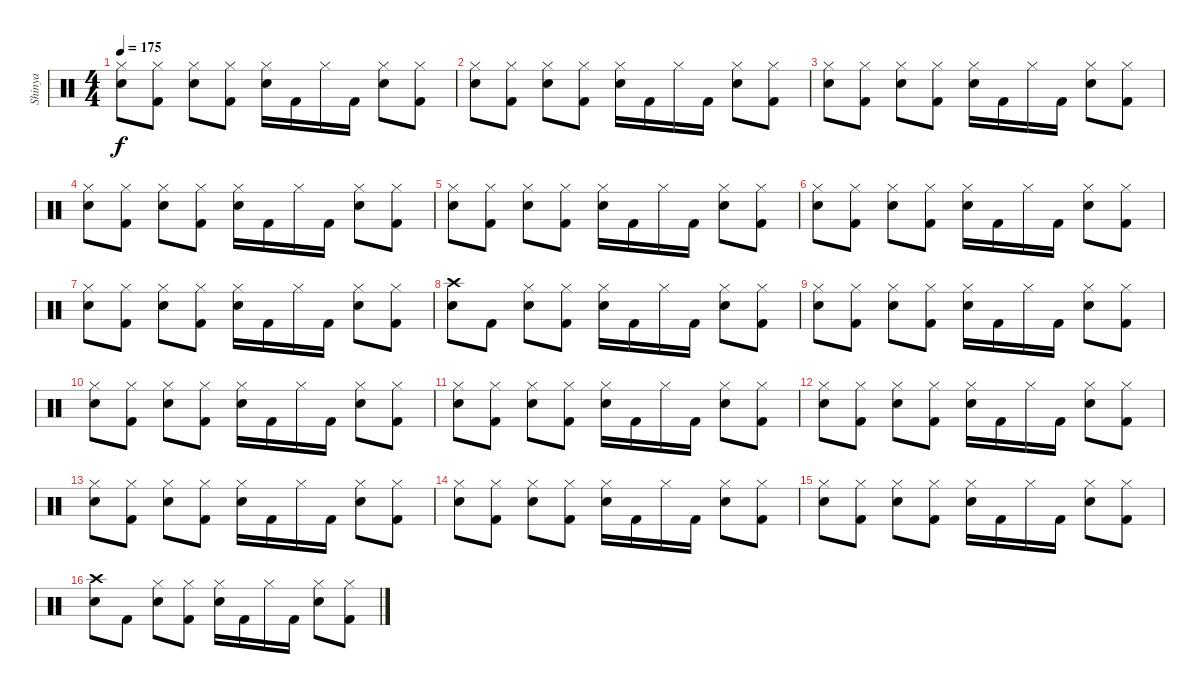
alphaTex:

\track ("Shinya" "Shinya") {instrument percussion}
\staff {score}
\articulation defaults
\ts (4 4)
\tempo 175
\clef neutral
\ks c
("Hi-Hat (closed)" "Snare (hit) 2").8{dy f} ("Hi-Hat (closed)" "Kick (hit) 2").8 ("Hi-Hat (closed)" "Snare (hit) 2").8 ("Hi-Hat (closed)" "Kick (hit) 2").8 ("Hi-Hat (closed)" "Snare (hit) 2").16 "Kick (hit) 2".16 "Hi-Hat (closed)".16 "Kick (hit) 2".16 ("Hi-Hat (closed)" "Snare (hit) 2").8 ("Hi-Hat (closed)" "Kick (hit) 2").8 |
("Hi-Hat (closed)" "Snare (hit) 2").8 ("Hi-Hat (closed)" "Kick (hit) 2").8 ("Hi-Hat (closed)" "Snare (hit) 2").8 ("Hi-Hat (closed)" "Kick (hit) 2").8 ("Hi-Hat (closed)" "Snare (hit) 2").16 "Kick (hit) 2".16 "Hi-Hat (closed)".16 "Kick (hit) 2".16 ("Hi-Hat (closed)" "Snare (hit) 2").8 ("Hi-Hat (closed)" "Kick (hit) 2").8 |
("Hi-Hat (closed)" "Snare (hit) 2").8 ("Hi-Hat (closed)" "Kick (hit) 2").8 ("Hi-Hat (closed)" "Snare (hit) 2").8 ("Hi-Hat (closed)" "Kick (hit) 2").8 ("Hi-Hat (closed)" "Snare (hit) 2").16 "Kick (hit) 2".16 "Hi-Hat (closed)".16 "Kick (hit) 2".16 ("Hi-Hat (closed)" "Snare (hit) 2").8 ("Hi-Hat (closed)" "Kick (hit) 2").8 |
("Hi-Hat (closed)" "Snare (hit) 2").8 ("Hi-Hat (closed)" "Kick (hit) 2").8 ("Hi-Hat (closed)" "Snare (hit) 2").8 ("Hi-Hat (closed)" "Kick (hit) 2").8 ("Hi-Hat (closed)" "Snare (hit) 2").16 "Kick (hit) 2".16 "Hi-Hat (closed)".16 "Kick (hit) 2".16 ("Hi-Hat (closed)" "Snare (hit) 2").8 ("Hi-Hat (closed)" "Kick (hit) 2").8 |
("Hi-Hat (closed)" "Snare (hit) 2").8 ("Hi-Hat (closed)" "Kick (hit) 2").8 ("Hi-Hat (closed)" "Snare (hit) 2").8 ("Hi-Hat (closed)" "Kick (hit) 2").8 ("Hi-Hat (closed)" "Snare (hit) 2").16 "Kick (hit) 2".16 "Hi-Hat (closed)".16 "Kick (hit) 2".16 ("Hi-Hat (closed)" "Snare (hit) 2").8 ("Hi-Hat (closed)" "Kick (hit) 2").8 |
("Hi-Hat (closed)" "Snare (hit) 2").8 ("Hi-Hat (closed)" "Kick (hit) 2").8 ("Hi-Hat (closed)" "Snare (hit) 2").8 ("Hi-Hat (closed)" "Kick (hit) 2").8 ("Hi-Hat (closed)" "Snare (hit) 2").16 "Kick (hit) 2".16 "Hi-Hat (closed)".16 "Kick (hit) 2".16 ("Hi-Hat (closed)" "Snare (hit) 2").8 ("Hi-Hat (closed)" "Kick (hit) 2").8 |
("Hi-Hat (closed)" "Snare (hit) 2").8 ("Hi-Hat (closed)" "Kick (hit) 2").8 ("Hi-Hat (closed)" "Snare (hit) 2").8 ("Hi-Hat (closed)" "Kick (hit) 2").8 ("Hi-Hat (closed)" "Snare (hit) 2").16 "Kick (hit) 2".16 "Hi-Hat (closed)".16 "Kick (hit) 2".16 ("Hi-Hat (closed)" "Snare (hit) 2").8 ("Hi-Hat (closed)" "Kick (hit) 2").8 |
("Crash high (hit)" "Snare (hit) 2").8 "Kick (hit) 2".8 ("Hi-Hat (closed)" "Snare (hit) 2").8 ("Hi-Hat (closed)" "Kick (hit) 2").8 ("Hi-Hat (closed)" "Snare (hit) 2").16 "Kick (hit) 2".16 "Hi-Hat (closed)".16 "Kick (hit) 2".16 ("Hi-Hat (closed)" "Snare (hit) 2").8 ("Hi-Hat (closed)" "Kick (hit) 2").8 |
("Hi-Hat (closed)" "Snare (hit) 2").8 ("Hi-Hat (closed)" "Kick (hit) 2").8 ("Hi-Hat (closed)" "Snare (hit) 2").8 ("Hi-Hat (closed)" "Kick (hit) 2").8 ("Hi-Hat (closed)" "Snare (hit) 2").16 "Kick (hit) 2".16 "Hi-Hat (closed)".16 "Kick (hit) 2".16 ("Hi-Hat (closed)" "Snare (hit) 2").8 ("Hi-Hat (closed)" "Kick (hit) 2").8 |
("Hi-Hat (closed)" "Snare (hit) 2").8 ("Hi-Hat (closed)" "Kick (hit) 2").8 ("Hi-Hat (closed)" "Snare (hit) 2").8 ("Hi-Hat (closed)" "Kick (hit) 2").8 ("Hi-Hat (closed)" "Snare (hit) 2").16 "Kick (hit) 2".16 "Hi-Hat (closed)".16 "Kick (hit) 2".16 ("Hi-Hat (closed)" "Snare (hit) 2").8 ("Hi-Hat (closed)" "Kick (hit) 2").8 |
("Hi-Hat (closed)" "Snare (hit) 2").8 ("Hi-Hat (closed)" "Kick (hit) 2").8 ("Hi-Hat (closed)" "Snare (hit) 2").8 ("Hi-Hat (closed)" "Kick (hit) 2").8 ("Hi-Hat (closed)" "Snare (hit) 2").16 "Kick (hit) 2".16 "Hi-Hat (closed)".16 "Kick (hit) 2".16 ("Hi-Hat (closed)" "Snare (hit) 2").8 ("Hi-Hat (closed)" "Kick (hit) 2").8 |
("Hi-Hat (closed)" "Snare (hit) 2").8 ("Hi-Hat (closed)" "Kick (hit) 2").8 ("Hi-Hat (closed)" "Snare (hit) 2").8 ("Hi-Hat (closed)" "Kick (hit) 2").8 ("Hi-Hat (closed)" "Snare (hit) 2").16 "Kick (hit) 2".16 "Hi-Hat (closed)".16 "Kick (hit) 2".16 ("Hi-Hat (closed)" "Snare (hit) 2").8 ("Hi-Hat (closed)" "Kick (hit) 2").8 |
("Hi-Hat (closed)" "Snare (hit) 2").8 ("Hi-Hat (closed)" "Kick (hit) 2").8 ("Hi-Hat (closed)" "Snare (hit) 2").8 ("Hi-Hat (closed)" "Kick (hit) 2").8 ("Hi-Hat (closed)" "Snare (hit) 2").16 "Kick (hit) 2".16 "Hi-Hat (closed)".16 "Kick (hit) 2".16 ("Hi-Hat (closed)" "Snare (hit) 2").8 ("Hi-Hat (closed)" "Kick (hit) 2").8 |
("Hi-Hat (closed)" "Snare (hit) 2").8 ("Hi-Hat (closed)" "Kick (hit) 2").8 ("Hi-Hat (closed)" "Snare (hit) 2").8 ("Hi-Hat (closed)" "Kick (hit) 2").8 ("Hi-Hat (closed)" "Snare (hit) 2").16 "Kick (hit) 2".16 "Hi-Hat (closed)".16 "Kick (hit) 2".16 ("Hi-Hat (closed)" "Snare (hit) 2").8 ("Hi-Hat (closed)" "Kick (hit) 2").8 |
("Hi-Hat (closed)" "Snare (hit) 2").8 ("Hi-Hat (closed)" "Kick (hit) 2").8 ("Hi-Hat (closed)" "Snare (hit) 2").8 ("Hi-Hat (closed)" "Kick (hit) 2").8 ("Hi-Hat (closed)" "Snare (hit) 2").16 "Kick (hit) 2".16 "Hi-Hat (closed)".16 "Kick (hit) 2".16 ("Hi-Hat (closed)" "Snare (hit) 2").8 ("Hi-Hat (closed)" "Kick (hit) 2").8 |
("Crash high (hit)" "Snare (hit) 2").8 "Kick (hit) 2".8 ("Hi-Hat (closed)" "Snare (hit) 2").8 ("Hi-Hat (closed)" "Kick (hit) 2").8 ("Hi-Hat (closed)" "Snare (hit) 2").16 "Kick (hit) 2".16 "Hi-Hat (closed)".16 "Kick (hit) 2".16 ("Hi-Hat (closed)" "Snare (hit) 2").8 ("Hi-Hat (closed)" "Kick (hit) 2").8
